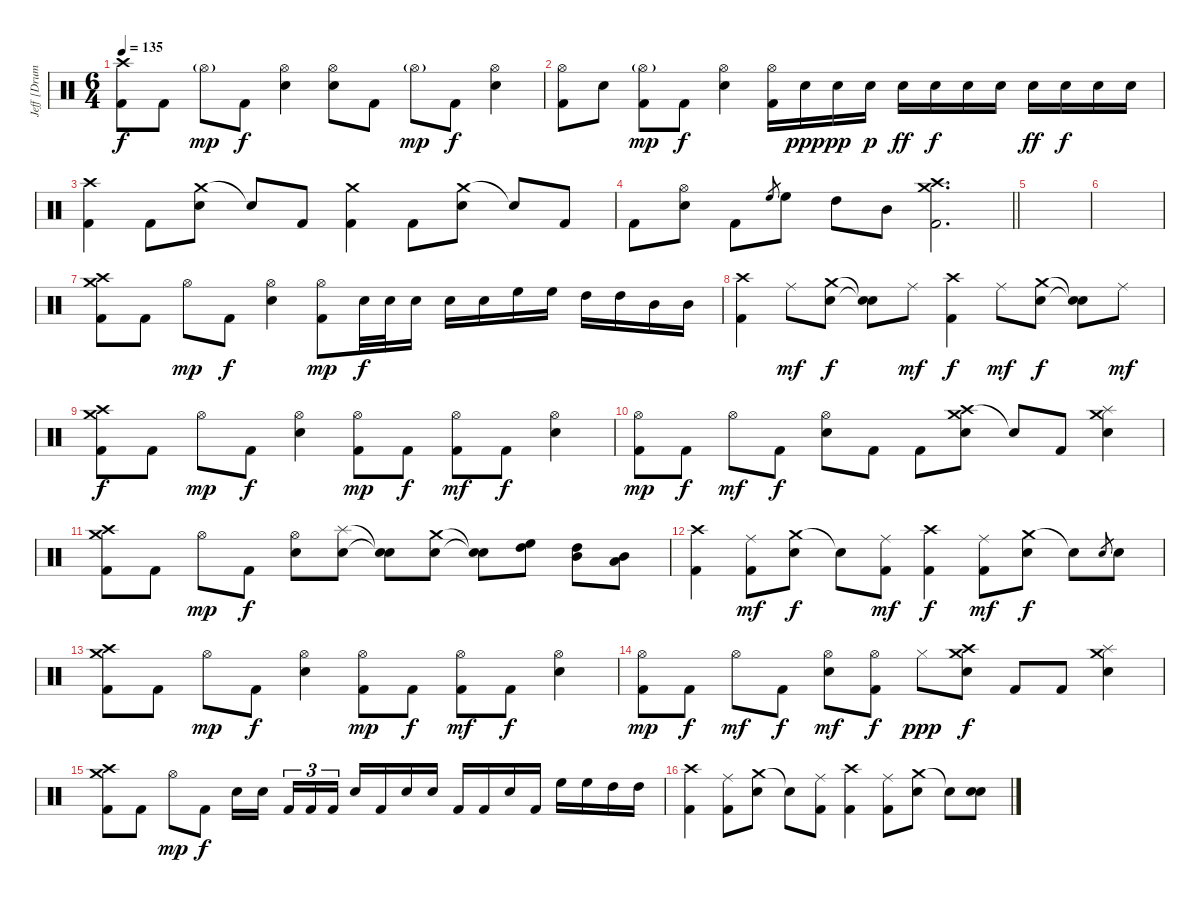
\track ("Jeff [Drums]" "Jeff [Drum") {instrument percussion}
\staff {score}
\articulation defaults
\ts (6 4)
\tempo 135
\clef neutral
\ks c
("Crash high (hit)" "Kick (hit) 2").8{dy f} "Kick (hit) 2".8 "Hi-Hat (open)"{g}.8{dy mp} "Kick (hit) 2".8{dy f} ("Hi-Hat (open)" "Electric Snare (hit)").4 ("Hi-Hat (open)" "Electric Snare (hit)").8 "Kick (hit) 2".8 "Hi-Hat (open)"{g}.8{dy mp} "Kick (hit) 2".8{dy f} ("Hi-Hat (open)" "Electric Snare (hit)").4 |
("Hi-Hat (open)" "Kick (hit) 2").8 "Electric Snare (hit)".8 ("Hi-Hat (open)"{g} "Kick (hit) 2").8{dy mp} "Kick (hit) 2".8{dy f} ("Hi-Hat (open)" "Electric Snare (hit)").4 ("Hi-Hat (open)" "Kick (hit) 2").16 "Electric Snare (hit)".16{dy ppp} "Electric Snare (hit)".16{dy pp} "Electric Snare (hit)".16{dy p} "Electric Snare (hit)".16{dy ff} "Electric Snare (hit)".16{dy f} "Electric Snare (hit)".16 "Electric Snare (hit)".16 "Electric Snare (hit)".16{dy ff} "Electric Snare (hit)".16{dy f} "Electric Snare (hit)".16 "Electric Snare (hit)".16 |
("Crash high (hit)" "Kick (hit) 2").4 "Kick (hit) 2".8 ("Crash medium (hit)" "Electric Snare (hit)").8 "Snare (hit)"{t}.8 "Kick (hit) 2".8 ("Crash medium (hit)" "Kick (hit) 2").4 "Kick (hit) 2".8 ("Crash medium (hit)" "Electric Snare (hit)").8 "Snare (hit)"{t}.8 "Kick (hit) 2".8 |
\barLineRight lightlight "Kick (hit) 2".8
("Hi-Hat (open)" "Electric Snare (hit)").8 "Kick (hit) 2".8 "High Floor Tom (hit)".8{gr} "High Floor Tom (hit)".8 "High Tom (hit)".8 "Mid Tom (hit)".8 ("Crash high (hit)" "Crash medium (hit)" "Kick (hit) 2").2{d} |
|
|
("Crash high (hit)" "Crash medium (hit)" "Kick (hit) 2").8 "Kick (hit) 2".8 "Hi-Hat (open)".8{dy mp} "Kick (hit) 2".8{dy f} ("Hi-Hat (open)" "Electric Snare (hit)").4 ("Hi-Hat (open)" "Kick (hit) 2").8{dy mp} "Electric Snare (hit)".32{dy f} "Electric Snare (hit)".32 "Electric Snare (hit)".16 "Electric Snare (hit)".16 "Electric Snare (hit)".16 "High Floor Tom (hit)".16 "High Floor Tom (hit)".16 "High Tom (hit)".16 "High Tom (hit)".16 "Mid Tom (hit)".16 "Mid Tom (hit)".16 |
("Crash high (hit)" "Kick (hit) 2").4 "Ride (middle)".8{dy mf} ("Crash medium (hit)" "Electric Snare (hit)").8{dy f} ("Snare (hit)"{t} "Snare (hit)"{t}).8 "Ride (middle)".8{dy mf} ("Crash high (hit)" "Kick (hit) 2").4{dy f} "Ride (middle)".8{dy mf} ("Crash medium (hit)" "Electric Snare (hit)").8{dy f} ("Snare (hit)"{t} "Snare (hit)"{t}).8 "Ride (middle)".8{dy mf} |
("Crash high (hit)" "Crash medium (hit)" "Kick (hit) 2").8{dy f} "Kick (hit) 2".8 "Hi-Hat (open)".8{dy mp} "Kick (hit) 2".8{dy f} ("Hi-Hat (open)" "Electric Snare (hit)").4 ("Hi-Hat (open)" "Kick (hit) 2").8{dy mp} "Kick (hit) 2".8{dy f} ("Hi-Hat (open)" "Kick (hit) 2").8{dy mf} "Kick (hit) 2".8{dy f} ("Hi-Hat (open)" "Electric Snare (hit)").4 |
("Hi-Hat (open)" "Kick (hit) 2").8{dy mp} "Kick (hit) 2".8{dy f} "Hi-Hat (open)".8{dy mf} "Kick (hit) 2".8{dy f} ("Hi-Hat (open)" "Electric Snare (hit)").8 "Kick (hit) 2".8 "Kick (hit) 2".8 ("Crash high (hit)" "Crash medium (hit)" "Electric Snare (hit)").8 "Snare (hit)"{t}.8 "Kick (hit) 2".8 ("Splash (hit)" "Crash medium (hit)" "Electric Snare (hit)").4 |
("Crash high (hit)" "Crash medium (hit)" "Kick (hit) 2").8 "Kick (hit) 2".8 "Hi-Hat (open)".8{dy mp} "Kick (hit) 2".8{dy f} ("Hi-Hat (open)" "Electric Snare (hit)").8 ("Splash (hit)" "Electric Snare (hit)").8 ("Snare (hit)"{t} "Snare (hit)"{t}).8 ("Crash medium (hit)" "Electric Snare (hit)").8 ("Snare (hit)"{t} "Snare (hit)"{t}).8 ("High Floor Tom (hit)" "High Tom (hit)").8 ("High Tom (hit)" "Mid Tom (hit)").8 ("Mid Tom (hit)" "Low Tom (hit)").8 |
("Crash high (hit)" "Kick (hit) 2").4 ("Ride (middle)" "Kick (hit) 2").8{dy mf} ("Crash medium (hit)" "Electric Snare (hit)").8{dy f} "Snare (hit)"{t}.8 ("Ride (middle)" "Kick (hit) 2").8{dy mf} ("Crash high (hit)" "Kick (hit) 2").4{dy f} ("Ride (middle)" "Kick (hit) 2").8{dy mf} ("Crash medium (hit)" "Electric Snare (hit)").8{dy f} "Snare (hit)"{t}.8 "Electric Snare (hit)".8{gr} "Electric Snare (hit)".8 |
("Crash high (hit)" "Crash medium (hit)" "Kick (hit) 2").8 "Kick (hit) 2".8 "Hi-Hat (open)".8{dy mp} "Kick (hit) 2".8{dy f} ("Hi-Hat (open)" "Electric Snare (hit)").4 ("Hi-Hat (open)" "Kick (hit) 2").8{dy mp} "Kick (hit) 2".8{dy f} ("Hi-Hat (open)" "Kick (hit) 2").8{dy mf} "Kick (hit) 2".8{dy f} ("Hi-Hat (open)" "Electric Snare (hit)").4 |
("Hi-Hat (open)" "Kick (hit) 2").8{dy mp} "Kick (hit) 2".8{dy f} "Hi-Hat (open)".8{dy mf} "Kick (hit) 2".8{dy f} ("Hi-Hat (open)" "Electric Snare (hit)").8{dy mf} ("Hi-Hat (open)" "Kick (hit) 2").8{dy f} "Hi-Hat (closed)".8{dy ppp} ("Crash high (hit)" "Crash medium (hit)" "Electric Snare (hit)").8{dy f} "Kick (hit) 2".8 "Kick (hit) 2".8 ("Crash medium (hit)" "Splash (hit)" "Electric Snare (hit)").4 |
("Crash high (hit)" "Crash medium (hit)" "Kick (hit) 2").8 "Kick (hit) 2".8 "Hi-Hat (open)".8{dy mp} "Kick (hit) 2".8{dy f} "Electric Snare (hit)".16 "Electric Snare (hit)".16 "Kick (hit) 2".16{tu (3 2)} "Kick (hit) 2".16{tu (3 2)} "Kick (hit) 2".16{tu (3 2)} "Electric Snare (hit)".16 "Kick (hit) 2".16 "Electric Snare (hit)".16 "Electric Snare (hit)".16 "Kick (hit) 2".16 "Kick (hit) 2".16 "Electric Snare (hit)".16 "Kick (hit) 2".16 "High Floor Tom (hit)".16 "High Floor Tom (hit)".16 "High Tom (hit)".16 "High Tom (hit)".16 |
("Crash high (hit)" "Kick (hit) 2").4 ("Ride (middle)" "Kick (hit) 2").8 ("Crash medium (hit)" "Electric Snare (hit)").8 "Snare (hit)"{t}.8 ("Ride (middle)" "Kick (hit) 2").8 ("Crash high (hit)" "Kick (hit) 2").4 ("Ride (middle)" "Kick (hit) 2").8 ("Crash medium (hit)" "Electric Snare (hit)").8 "Snare (hit)"{t}.8 ("Snare (hit)" "Electric Snare (hit)").8
